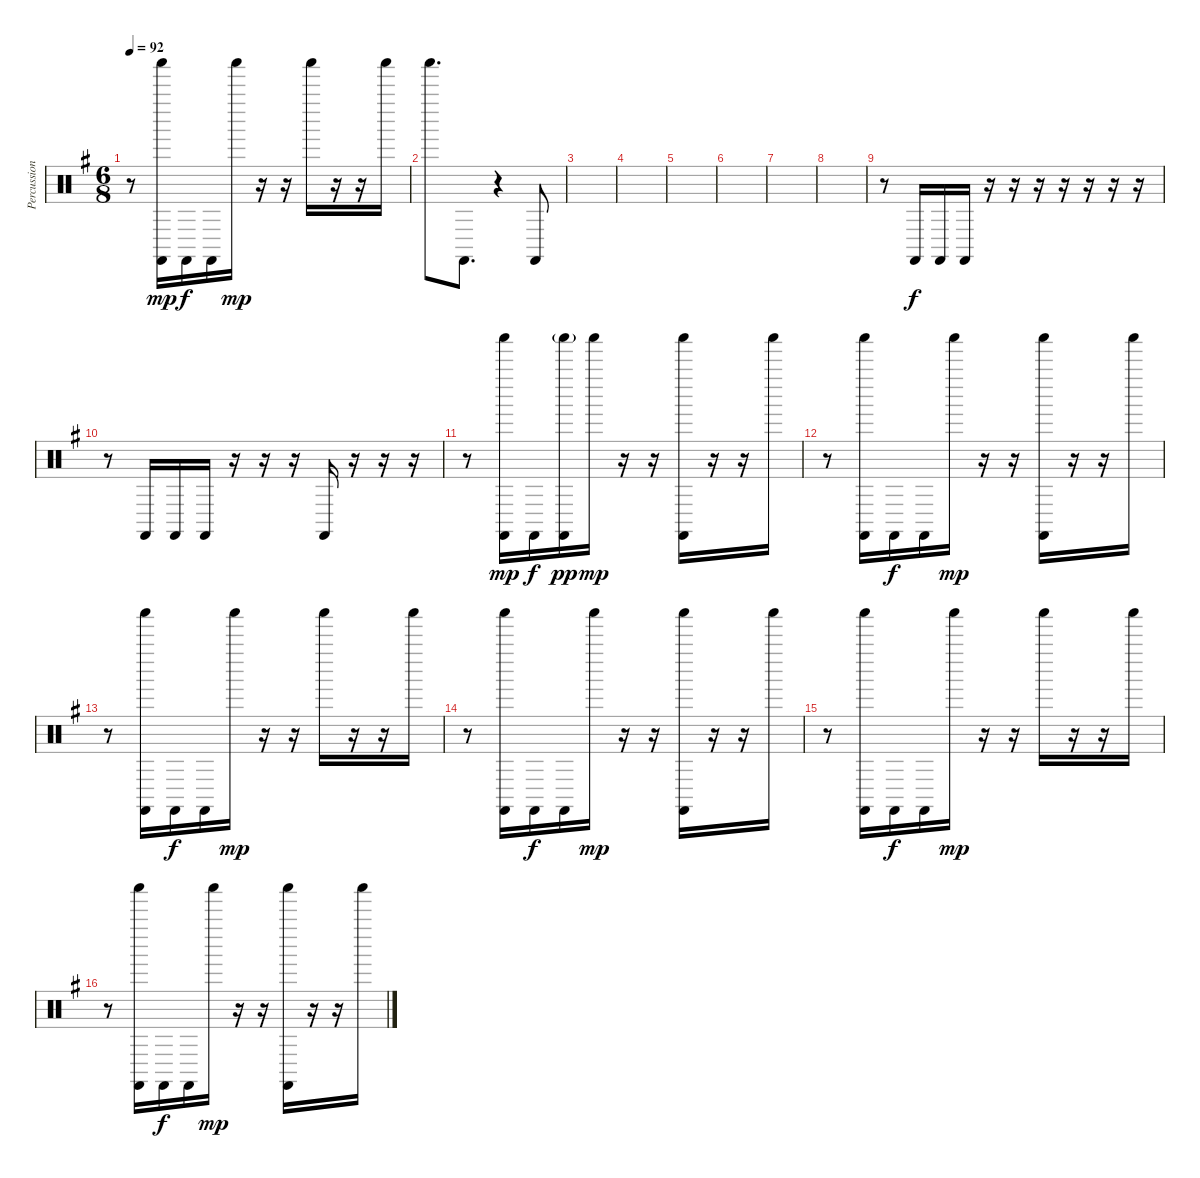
\track ("Percussion" "Percussion") {instrument percussion}
\staff {score}
\articulation defaults
\ts (6 8)
\tempo 92
\clef neutral
\ks g
r.8{dy mp} ("Shaker (hit)" "Castanets (hit)").16 "Castanets (hit)".16{dy f} "Castanets (hit)".16 "Shaker (hit)".16{dy mp} r.16 r.16 "Shaker (hit)".16 r.16 r.16 "Shaker (hit)".16 |
"Shaker (hit)".8{d} "Castanets (hit)".8{d} r.4 "Castanets (hit)".8 |
|
|
|
|
|
|
r.8 "Castanets (hit)".16{dy f} "Castanets (hit)".16 "Castanets (hit)".16 r.16 r.16 r.16 r.16 r.16 r.16 r.16 |
r.8 "Castanets (hit)".16 "Castanets (hit)".16 "Castanets (hit)".16 r.16 r.16 r.16 "Castanets (hit)".16 r.16 r.16 r.16 |
r.8 ("Shaker (hit)" "Castanets (hit)").16{dy mp} "Castanets (hit)".16{dy f} ("Shaker (hit)"{g} "Castanets (hit)").16{dy pp} "Shaker (hit)".16{dy mp} r.16 r.16 ("Shaker (hit)" "Castanets (hit)").16 r.16 r.16 "Shaker (hit)".16 |
r.8 ("Shaker (hit)" "Castanets (hit)").16 "Castanets (hit)".16{dy f} "Castanets (hit)".16 "Shaker (hit)".16{dy mp} r.16 r.16 ("Shaker (hit)" "Castanets (hit)").16 r.16 r.16 "Shaker (hit)".16 |
r.8 ("Shaker (hit)" "Castanets (hit)").16 "Castanets (hit)".16{dy f} "Castanets (hit)".16 "Shaker (hit)".16{dy mp} r.16 r.16 "Shaker (hit)".16 r.16 r.16 "Shaker (hit)".16 |
r.8 ("Shaker (hit)" "Castanets (hit)").16 "Castanets (hit)".16{dy f} "Castanets (hit)".16 "Shaker (hit)".16{dy mp} r.16 r.16 ("Shaker (hit)" "Castanets (hit)").16 r.16 r.16 "Shaker (hit)".16 |
r.8 ("Shaker (hit)" "Castanets (hit)").16 "Castanets (hit)".16{dy f} "Castanets (hit)".16 "Shaker (hit)".16{dy mp} r.16 r.16 "Shaker (hit)".16 r.16 r.16 "Shaker (hit)".16 |
r.8 ("Shaker (hit)" "Castanets (hit)").16 "Castanets (hit)".16{dy f} "Castanets (hit)".16 "Shaker (hit)".16{dy mp} r.16 r.16 ("Shaker (hit)" "Castanets (hit)").16 r.16 r.16 "Shaker (hit)".16
